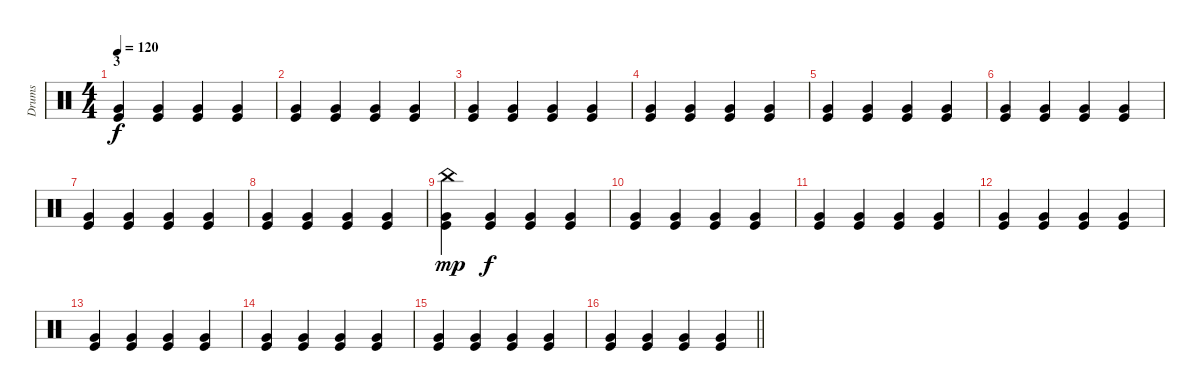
\track ("Drums" "Drums") {instrument percussion}
\staff {score}
\articulation defaults
\ts (4 4)
\section ("" "3")
\tempo 120
\clef neutral
\ks c
("Very Low Tom (hit)" "Kick (hit)").4{dy f volume 4} ("Very Low Tom (hit)" "Kick (hit)").4 ("Very Low Tom (hit)" "Kick (hit)").4 ("Very Low Tom (hit)" "Kick (hit)").4 |
("Very Low Tom (hit)" "Kick (hit)").4 ("Very Low Tom (hit)" "Kick (hit)").4 ("Very Low Tom (hit)" "Kick (hit)").4 ("Very Low Tom (hit)" "Kick (hit)").4 |
("Very Low Tom (hit)" "Kick (hit)").4 ("Very Low Tom (hit)" "Kick (hit)").4 ("Very Low Tom (hit)" "Kick (hit)").4 ("Very Low Tom (hit)" "Kick (hit)").4 |
("Very Low Tom (hit)" "Kick (hit)").4 ("Very Low Tom (hit)" "Kick (hit)").4 ("Very Low Tom (hit)" "Kick (hit)").4 ("Very Low Tom (hit)" "Kick (hit)").4 |
("Very Low Tom (hit)" "Kick (hit)").4 ("Very Low Tom (hit)" "Kick (hit)").4 ("Very Low Tom (hit)" "Kick (hit)").4 ("Very Low Tom (hit)" "Kick (hit)").4 |
("Very Low Tom (hit)" "Kick (hit)").4 ("Very Low Tom (hit)" "Kick (hit)").4 ("Very Low Tom (hit)" "Kick (hit)").4 ("Very Low Tom (hit)" "Kick (hit)").4 |
("Very Low Tom (hit)" "Kick (hit)").4 ("Very Low Tom (hit)" "Kick (hit)").4 ("Very Low Tom (hit)" "Kick (hit)").4 ("Very Low Tom (hit)" "Kick (hit)").4 |
("Very Low Tom (hit)" "Kick (hit)").4 ("Very Low Tom (hit)" "Kick (hit)").4 ("Very Low Tom (hit)" "Kick (hit)").4 ("Very Low Tom (hit)" "Kick (hit)").4 |
("Very Low Tom (hit)" "Kick (hit)" "China (hit)").4{dy mp} ("Very Low Tom (hit)" "Kick (hit)").4{dy f} ("Very Low Tom (hit)" "Kick (hit)").4 ("Very Low Tom (hit)" "Kick (hit)").4 |
("Very Low Tom (hit)" "Kick (hit)").4 ("Very Low Tom (hit)" "Kick (hit)").4 ("Very Low Tom (hit)" "Kick (hit)").4 ("Very Low Tom (hit)" "Kick (hit)").4 |
("Very Low Tom (hit)" "Kick (hit)").4 ("Very Low Tom (hit)" "Kick (hit)").4 ("Very Low Tom (hit)" "Kick (hit)").4 ("Very Low Tom (hit)" "Kick (hit)").4 |
("Very Low Tom (hit)" "Kick (hit)").4 ("Very Low Tom (hit)" "Kick (hit)").4 ("Very Low Tom (hit)" "Kick (hit)").4 ("Very Low Tom (hit)" "Kick (hit)").4 |
("Very Low Tom (hit)" "Kick (hit)").4 ("Very Low Tom (hit)" "Kick (hit)").4 ("Very Low Tom (hit)" "Kick (hit)").4 ("Very Low Tom (hit)" "Kick (hit)").4 |
("Very Low Tom (hit)" "Kick (hit)").4 ("Very Low Tom (hit)" "Kick (hit)").4 ("Very Low Tom (hit)" "Kick (hit)").4 ("Very Low Tom (hit)" "Kick (hit)").4 |
("Very Low Tom (hit)" "Kick (hit)").4 ("Very Low Tom (hit)" "Kick (hit)").4 ("Very Low Tom (hit)" "Kick (hit)").4 ("Very Low Tom (hit)" "Kick (hit)").4 |
\barLineRight lightlight
("Very Low Tom (hit)" "Kick (hit)").4 ("Very Low Tom (hit)" "Kick (hit)").4 ("Very Low Tom (hit)" "Kick (hit)").4 ("Very Low Tom (hit)" "Kick (hit)").4
